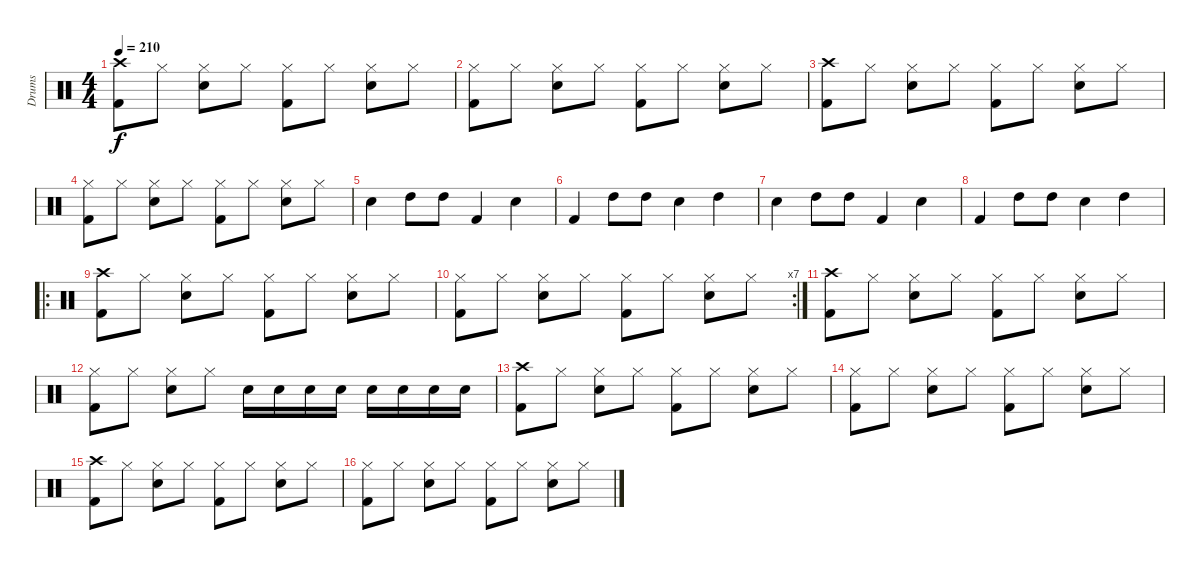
\track ("Drums" "Drums") {instrument percussion}
\staff {score}
\articulation defaults
\ts (4 4)
\tempo 210
\clef neutral
\ks c
("Crash high (hit)" "Kick (hit) 2").8{dy f} "Hi-Hat (closed)".8 ("Hi-Hat (closed)" "Snare (hit) 2").8 "Hi-Hat (closed)".8 ("Hi-Hat (closed)" "Kick (hit) 2").8 "Hi-Hat (closed)".8 ("Hi-Hat (closed)" "Snare (hit) 2").8 "Hi-Hat (closed)".8 |
("Hi-Hat (closed)" "Kick (hit) 2").8 "Hi-Hat (closed)".8 ("Hi-Hat (closed)" "Snare (hit) 2").8 "Hi-Hat (closed)".8 ("Hi-Hat (closed)" "Kick (hit) 2").8 "Hi-Hat (closed)".8 ("Hi-Hat (closed)" "Snare (hit) 2").8 "Hi-Hat (closed)".8 |
("Crash high (hit)" "Kick (hit) 2").8 "Hi-Hat (closed)".8 ("Hi-Hat (closed)" "Snare (hit) 2").8 "Hi-Hat (closed)".8 ("Hi-Hat (closed)" "Kick (hit) 2").8 "Hi-Hat (closed)".8 ("Hi-Hat (closed)" "Snare (hit) 2").8 "Hi-Hat (closed)".8 |
("Hi-Hat (closed)" "Kick (hit) 2").8 "Hi-Hat (closed)".8 ("Hi-Hat (closed)" "Snare (hit) 2").8 "Hi-Hat (closed)".8 ("Hi-Hat (closed)" "Kick (hit) 2").8 "Hi-Hat (closed)".8 ("Hi-Hat (closed)" "Snare (hit) 2").8 "Hi-Hat (closed)".8 |
"Snare (hit) 2".4 "High Tom (hit)".8 "High Tom (hit)".8 "Kick (hit) 2".4 "Snare (hit) 2".4 |
"Kick (hit) 2".4 "High Tom (hit)".8 "High Tom (hit)".8 "Snare (hit) 2".4 "High Tom (hit)".4 |
"Snare (hit) 2".4 "High Tom (hit)".8 "High Tom (hit)".8 "Kick (hit) 2".4 "Snare (hit) 2".4 |
"Kick (hit) 2".4 "High Tom (hit)".8 "High Tom (hit)".8 "Snare (hit) 2".4 "High Tom (hit)".4 |
\ro
("Crash high (hit)" "Kick (hit) 2").8 "Hi-Hat (closed)".8 ("Hi-Hat (closed)" "Snare (hit) 2").8 "Hi-Hat (closed)".8 ("Hi-Hat (closed)" "Kick (hit) 2").8 "Hi-Hat (closed)".8 ("Hi-Hat (closed)" "Snare (hit) 2").8 "Hi-Hat (closed)".8 |
\rc 7
("Hi-Hat (closed)" "Kick (hit) 2").8 "Hi-Hat (closed)".8 ("Hi-Hat (closed)" "Snare (hit) 2").8 "Hi-Hat (closed)".8 ("Hi-Hat (closed)" "Kick (hit) 2").8 "Hi-Hat (closed)".8 ("Hi-Hat (closed)" "Snare (hit) 2").8 "Hi-Hat (closed)".8 |
("Crash high (hit)" "Kick (hit) 2").8 "Hi-Hat (closed)".8 ("Hi-Hat (closed)" "Snare (hit) 2").8 "Hi-Hat (closed)".8 ("Hi-Hat (closed)" "Kick (hit) 2").8 "Hi-Hat (closed)".8 ("Hi-Hat (closed)" "Snare (hit) 2").8 "Hi-Hat (closed)".8 |
("Hi-Hat (closed)" "Kick (hit) 2").8 "Hi-Hat (closed)".8 ("Hi-Hat (closed)" "Snare (hit) 2").8 "Hi-Hat (closed)".8 "Snare (hit) 2".16 "Snare (hit) 2".16 "Snare (hit) 2".16 "Snare (hit) 2".16 "Snare (hit) 2".16 "Snare (hit) 2".16 "Snare (hit) 2".16 "Snare (hit) 2".16 |
("Crash high (hit)" "Kick (hit) 2").8 "Hi-Hat (closed)".8 ("Hi-Hat (closed)" "Snare (hit) 2").8 "Hi-Hat (closed)".8 ("Hi-Hat (closed)" "Kick (hit) 2").8 "Hi-Hat (closed)".8 ("Hi-Hat (closed)" "Snare (hit) 2").8 "Hi-Hat (closed)".8 |
("Hi-Hat (closed)" "Kick (hit) 2").8 "Hi-Hat (closed)".8 ("Hi-Hat (closed)" "Snare (hit) 2").8 "Hi-Hat (closed)".8 ("Hi-Hat (closed)" "Kick (hit) 2").8 "Hi-Hat (closed)".8 ("Hi-Hat (closed)" "Snare (hit) 2").8 "Hi-Hat (closed)".8 |
("Crash high (hit)" "Kick (hit) 2").8 "Hi-Hat (closed)".8 ("Hi-Hat (closed)" "Snare (hit) 2").8 "Hi-Hat (closed)".8 ("Hi-Hat (closed)" "Kick (hit) 2").8 "Hi-Hat (closed)".8 ("Hi-Hat (closed)" "Snare (hit) 2").8 "Hi-Hat (closed)".8 |
("Hi-Hat (closed)" "Kick (hit) 2").8 "Hi-Hat (closed)".8 ("Hi-Hat (closed)" "Snare (hit) 2").8 "Hi-Hat (closed)".8 ("Hi-Hat (closed)" "Kick (hit) 2").8 "Hi-Hat (closed)".8 ("Hi-Hat (closed)" "Snare (hit) 2").8 "Hi-Hat (closed)".8
